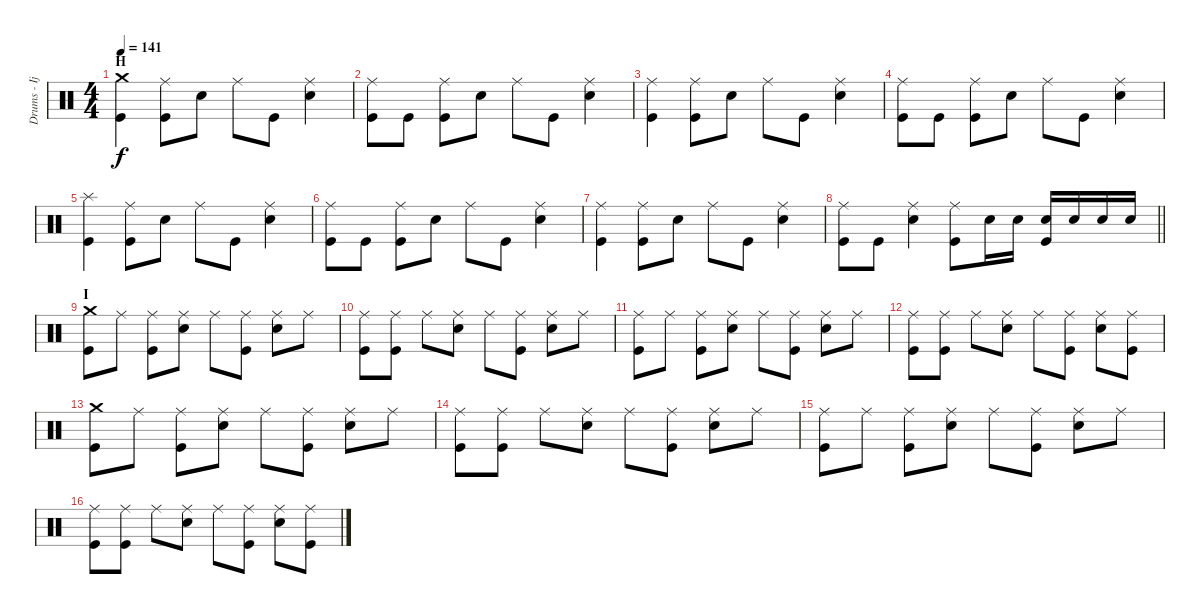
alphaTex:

\track ("Drums - Ijichi" "Drums - Ij") {instrument percussion}
\staff {score}
\articulation defaults
\ts (4 4)
\section ("" "H")
\tempo 141
\clef neutral
\ks c
("Crash medium (hit)" "Kick (hit)").4{dy f} ("Ride (middle)" "Kick (hit)").8 "Electric Snare (hit)".8 "Ride (middle)".8 "Kick (hit)".8 ("Ride (middle)" "Electric Snare (hit)").4 |
("Ride (middle)" "Kick (hit)").8 "Kick (hit)".8 ("Ride (middle)" "Kick (hit)").8 "Electric Snare (hit)".8 "Ride (middle)".8 "Kick (hit)".8 ("Ride (middle)" "Electric Snare (hit)").4 |
("Ride (middle)" "Kick (hit)").4 ("Ride (middle)" "Kick (hit)").8 "Electric Snare (hit)".8 "Ride (middle)".8 "Kick (hit)".8 ("Ride (middle)" "Electric Snare (hit)").4 |
("Ride (middle)" "Kick (hit)").8 "Kick (hit)".8 ("Ride (middle)" "Kick (hit)").8 "Electric Snare (hit)".8 "Ride (middle)".8 "Kick (hit)".8 ("Ride (middle)" "Electric Snare (hit)").4 |
("Splash (hit)" "Kick (hit)").4 ("Ride (middle)" "Kick (hit)").8 "Electric Snare (hit)".8 "Ride (middle)".8 "Kick (hit)".8 ("Ride (middle)" "Electric Snare (hit)").4 |
("Ride (middle)" "Kick (hit)").8 "Kick (hit)".8 ("Ride (middle)" "Kick (hit)").8 "Electric Snare (hit)".8 "Ride (middle)".8 "Kick (hit)".8 ("Ride (middle)" "Electric Snare (hit)").4 |
("Ride (middle)" "Kick (hit)").4 ("Ride (middle)" "Kick (hit)").8 "Electric Snare (hit)".8 "Ride (middle)".8 "Kick (hit)".8 ("Ride (middle)" "Electric Snare (hit)").4 |
\barLineRight lightlight
("Ride (middle)" "Kick (hit)").8 "Kick (hit)".8 ("Ride (middle)" "Electric Snare (hit)").4 ("Ride (middle)" "Kick (hit)").8 "Electric Snare (hit)".16 "Electric Snare (hit)".16 ("Electric Snare (hit)" "Kick (hit)").16 "Electric Snare (hit)".16 "Electric Snare (hit)".16 "Electric Snare (hit)".16 |
\section ("" "I")
("Crash medium (hit)" "Kick (hit)").8 "Ride (middle)".8 ("Ride (middle)" "Kick (hit)").8 ("Ride (middle)" "Electric Snare (hit)").8 "Ride (middle)".8 ("Ride (middle)" "Kick (hit)").8 ("Ride (middle)" "Electric Snare (hit)").8 "Ride (middle)".8 |
("Ride (middle)" "Kick (hit)").8 ("Ride (middle)" "Kick (hit)").8 "Ride (middle)".8 ("Ride (middle)" "Electric Snare (hit)").8 "Ride (middle)".8 ("Ride (middle)" "Kick (hit)").8 ("Ride (middle)" "Electric Snare (hit)").8 "Ride (middle)".8 |
("Ride (middle)" "Kick (hit)").8 "Ride (middle)".8 ("Ride (middle)" "Kick (hit)").8 ("Ride (middle)" "Electric Snare (hit)").8 "Ride (middle)".8 ("Ride (middle)" "Kick (hit)").8 ("Ride (middle)" "Electric Snare (hit)").8 "Ride (middle)".8 |
("Ride (middle)" "Kick (hit)").8 ("Ride (middle)" "Kick (hit)").8 "Ride (middle)".8 ("Ride (middle)" "Electric Snare (hit)").8 "Ride (middle)".8 ("Ride (middle)" "Kick (hit)").8 ("Ride (middle)" "Electric Snare (hit)").8 ("Ride (middle)" "Kick (hit)").8 |
("Crash medium (hit)" "Kick (hit)").8 "Ride (middle)".8 ("Ride (middle)" "Kick (hit)").8 ("Ride (middle)" "Electric Snare (hit)").8 "Ride (middle)".8 ("Ride (middle)" "Kick (hit)").8 ("Ride (middle)" "Electric Snare (hit)").8 "Ride (middle)".8 |
("Ride (middle)" "Kick (hit)").8 ("Ride (middle)" "Kick (hit)").8 "Ride (middle)".8 ("Ride (middle)" "Electric Snare (hit)").8 "Ride (middle)".8 ("Ride (middle)" "Kick (hit)").8 ("Ride (middle)" "Electric Snare (hit)").8 "Ride (middle)".8 |
("Ride (middle)" "Kick (hit)").8 "Ride (middle)".8 ("Ride (middle)" "Kick (hit)").8 ("Ride (middle)" "Electric Snare (hit)").8 "Ride (middle)".8 ("Ride (middle)" "Kick (hit)").8 ("Ride (middle)" "Electric Snare (hit)").8 "Ride (middle)".8 |
("Ride (middle)" "Kick (hit)").8 ("Ride (middle)" "Kick (hit)").8 "Ride (middle)".8 ("Ride (middle)" "Electric Snare (hit)").8 "Ride (middle)".8 ("Ride (middle)" "Kick (hit)").8 ("Ride (middle)" "Electric Snare (hit)").8 ("Ride (middle)" "Kick (hit)").8
